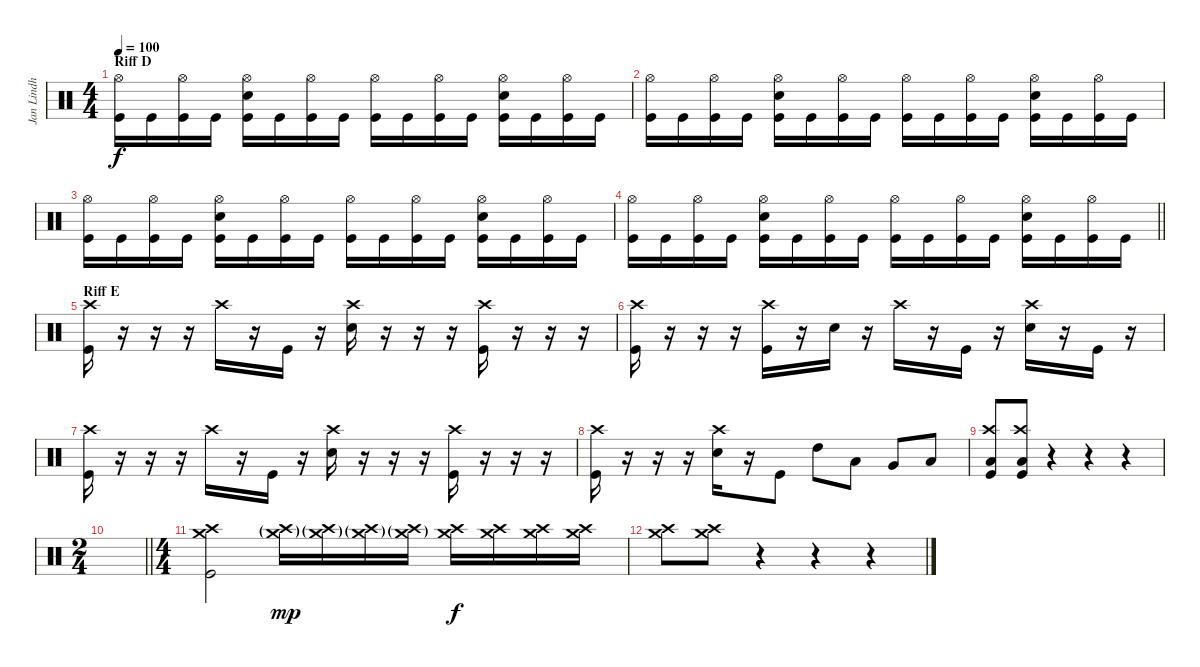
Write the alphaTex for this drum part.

\track ("Jan Lindh" "Jan Lindh") {instrument percussion}
\staff {score}
\articulation defaults
\ts (4 4)
\section ("" "Riff D")
\tempo 100
\clef neutral
\ks c
("Hi-Hat (open)" "Kick (hit)").16{dy f} "Kick (hit)".16 ("Hi-Hat (open)" "Kick (hit)").16 "Kick (hit)".16 ("Hi-Hat (open)" "Snare (hit) 2" "Kick (hit)").16 "Kick (hit)".16 ("Hi-Hat (open)" "Kick (hit)").16 "Kick (hit)".16 ("Hi-Hat (open)" "Kick (hit)").16 "Kick (hit)".16 ("Hi-Hat (open)" "Kick (hit)").16 "Kick (hit)".16 ("Hi-Hat (open)" "Snare (hit) 2" "Kick (hit)").16 "Kick (hit)".16 ("Hi-Hat (open)" "Kick (hit)").16 "Kick (hit)".16 |
("Hi-Hat (open)" "Kick (hit)").16 "Kick (hit)".16 ("Hi-Hat (open)" "Kick (hit)").16 "Kick (hit)".16 ("Hi-Hat (open)" "Snare (hit) 2" "Kick (hit)").16 "Kick (hit)".16 ("Hi-Hat (open)" "Kick (hit)").16 "Kick (hit)".16 ("Hi-Hat (open)" "Kick (hit)").16 "Kick (hit)".16 ("Hi-Hat (open)" "Kick (hit)").16 "Kick (hit)".16 ("Hi-Hat (open)" "Snare (hit) 2" "Kick (hit)").16 "Kick (hit)".16 ("Hi-Hat (open)" "Kick (hit)").16 "Kick (hit)".16 |
("Hi-Hat (open)" "Kick (hit)").16 "Kick (hit)".16 ("Hi-Hat (open)" "Kick (hit)").16 "Kick (hit)".16 ("Hi-Hat (open)" "Snare (hit) 2" "Kick (hit)").16 "Kick (hit)".16 ("Hi-Hat (open)" "Kick (hit)").16 "Kick (hit)".16 ("Hi-Hat (open)" "Kick (hit)").16 "Kick (hit)".16 ("Hi-Hat (open)" "Kick (hit)").16 "Kick (hit)".16 ("Hi-Hat (open)" "Snare (hit) 2" "Kick (hit)").16 "Kick (hit)".16 ("Hi-Hat (open)" "Kick (hit)").16 "Kick (hit)".16 |
\barLineRight lightlight
("Hi-Hat (open)" "Kick (hit)").16 "Kick (hit)".16 ("Hi-Hat (open)" "Kick (hit)").16 "Kick (hit)".16 ("Hi-Hat (open)" "Snare (hit) 2" "Kick (hit)").16 "Kick (hit)".16 ("Hi-Hat (open)" "Kick (hit)").16 "Kick (hit)".16 ("Hi-Hat (open)" "Kick (hit)").16 "Kick (hit)".16 ("Hi-Hat (open)" "Kick (hit)").16 "Kick (hit)".16 ("Hi-Hat (open)" "Snare (hit) 2" "Kick (hit)").16 "Kick (hit)".16 ("Hi-Hat (open)" "Kick (hit)").16 "Kick (hit)".16 |
\section ("" "Riff E")
("Crash high (hit)" "Kick (hit)").16 r.16 r.16 r.16 "Crash high (hit)".16 r.16 "Kick (hit)".16 r.16 ("Crash high (hit)" "Snare (hit) 2").16 r.16 r.16 r.16 ("Crash high (hit)" "Kick (hit)").16 r.16 r.16 r.16 |
("Crash high (hit)" "Kick (hit)").16 r.16 r.16 r.16 ("Crash high (hit)" "Kick (hit)").16 r.16 "Snare (hit) 2".16 r.16 "Crash high (hit)".16 r.16 "Kick (hit)".16 r.16 ("Crash high (hit)" "Snare (hit) 2").16 r.16 "Kick (hit)".16 r.16 |
("Crash high (hit)" "Kick (hit)").16 r.16 r.16 r.16 "Crash high (hit)".16 r.16 "Kick (hit)".16 r.16 ("Crash high (hit)" "Snare (hit) 2").16 r.16 r.16 r.16 ("Crash high (hit)" "Kick (hit)").16 r.16 r.16 r.16 |
("Crash high (hit)" "Kick (hit)").16 r.16 r.16 r.16 ("Crash high (hit)" "Snare (hit) 2").16 r.16 "Kick (hit)".8 "High Tom (hit)".8 "Low Tom (hit)".8 "Very Low Tom (hit)".8 "Low Floor Tom (hit)".8 |
("Crash high (hit)" "Low Floor Tom (hit)" "Kick (hit)").8 ("Crash high (hit)" "Low Floor Tom (hit)" "Kick (hit)").8 r.4 r.4 r.4 |
\ts (2 4)
\barLineRight lightlight
|
\ts (4 4)
("Crash high (hit)" "Crash medium (hit)" "Kick (hit)").2 ("Crash high (hit)"{g} "Crash medium (hit)"{g}).16{dy mp} ("Crash high (hit)"{g} "Crash medium (hit)"{g}).16 ("Crash high (hit)"{g} "Crash medium (hit)"{g}).16 ("Crash high (hit)"{g} "Crash medium (hit)"{g}).16 ("Crash high (hit)" "Crash medium (hit)").16{dy f} ("Crash high (hit)" "Crash medium (hit)").16 ("Crash high (hit)" "Crash medium (hit)").16 ("Crash high (hit)" "Crash medium (hit)").16 |
("Crash high (hit)" "Crash medium (hit)").8 ("Crash high (hit)" "Crash medium (hit)").8 r.4 r.4 r.4
